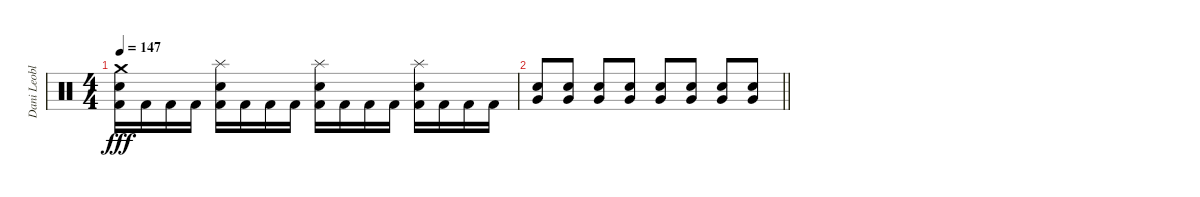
\track ("Dani Leoble" "Dani Leobl") {instrument percussion}
\staff {score}
\articulation defaults
\ts (4 4)
\tempo 147
\clef neutral
\ks c
("Crash medium (hit)" "Electric Snare (hit)" "Kick (hit) 2").16{dy fff} "Kick (hit) 2".16 "Kick (hit) 2".16 "Kick (hit) 2".16 ("Splash (hit)" "Electric Snare (hit)" "Kick (hit) 2").16 "Kick (hit) 2".16 "Kick (hit) 2".16 "Kick (hit) 2".16 ("Splash (hit)" "Electric Snare (hit)" "Kick (hit) 2").16 "Kick (hit) 2".16 "Kick (hit) 2".16 "Kick (hit) 2".16 ("Splash (hit)" "Electric Snare (hit)" "Kick (hit) 2").16 "Kick (hit) 2".16 "Kick (hit) 2".16 "Kick (hit) 2".16 |
\barLineRight lightlight
("Electric Snare (hit)" "Very Low Tom (hit)").8 ("Electric Snare (hit)" "Very Low Tom (hit)").8 ("Electric Snare (hit)" "Very Low Tom (hit)").8 ("Electric Snare (hit)" "Very Low Tom (hit)").8 ("Electric Snare (hit)" "Very Low Tom (hit)").8 ("Electric Snare (hit)" "Very Low Tom (hit)").8 ("Electric Snare (hit)" "Very Low Tom (hit)").8 ("Electric Snare (hit)" "Very Low Tom (hit)").8
